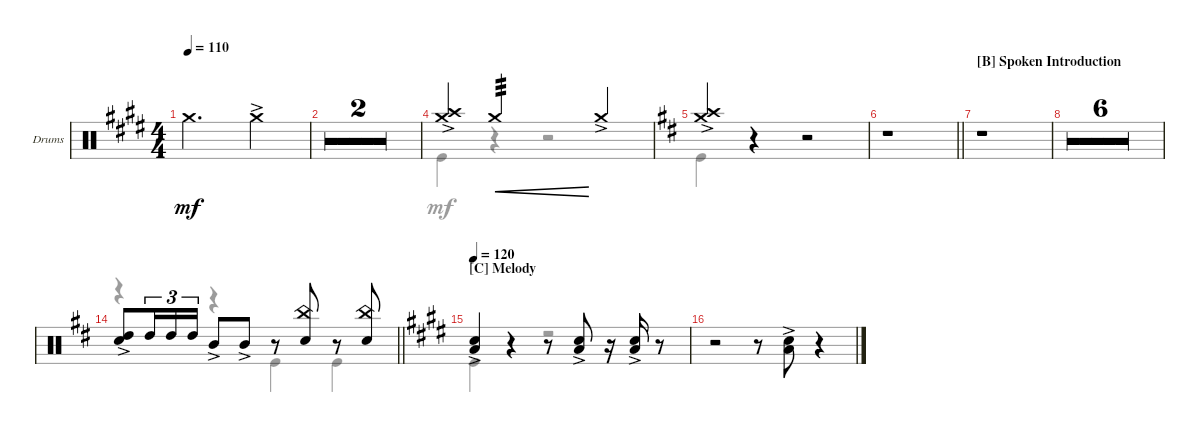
\defaultSystemsLayout 4
\bracketExtendMode groupsimilarinstruments
\firstSystemTrackNameOrientation horizontal
\otherSystemsTrackNameOrientation horizontal
\track ("Drums" "Drums") {multiBarRest instrument percussion}
\staff {score}
\articulation defaults
\voice
\ts (4 4)
\tempo 110
\clef neutral
\ks e "Crash medium (hit)"{t}.2{d dy mf} "Crash medium (hit)"{ac}.4
|
\simile firstofdouble
|
\simile secondofdouble
|
("Crash medium (hit)"{ac} "Crash high (hit)"{ac}).4 "Crash medium (hit)".2{tp 3 cre} "Crash medium (hit)"{ac}.4 |
\ks bminor
("Crash medium (hit)"{ac} "Crash high (hit)"{ac}).4 r.4 r.2 |
\barLineRight lightlight
r.1 |
\section ("B" "Spoken Introduction")
r.1 |
r.1 |
r.1 |
r.1 |
r.1 |
r.1 |
r.1 |
\barLineRight lightlight
("Snare (hit) 2"{ac} "High Tom (hit)"{ac}).8{beam merge} "High Tom (hit)".16{tu (3 2) beam merge} "High Tom (hit)".16{tu (3 2) beam merge} "High Tom (hit)".16{tu (3 2)} "Mid Tom (hit)"{ac}.8 "Mid Tom (hit)"{ac}.8 r.8 ("Snare (hit) 2" "China (hit)").8 r.8 ("Snare (hit) 2" "China (hit)").8 |
\section ("C" "Melody")
\tempo 120
\ks e
("Snare (hit) 2"{ac} "Low Tom (hit)"{ac}).4 r.4 r.8 ("Snare (hit) 2"{ac} "Low Tom (hit)"{ac}).8 r.16 ("Snare (hit) 2"{ac} "Low Tom (hit)"{ac}).16 r.8 |
r.2 r.8 ("Low Tom (hit)"{ac} "Snare (hit) 2"{ac}).8 r.4
\voice
\clef neutral
\ottava regular
\simile none
\ks e
|
\simile firstofdouble
|
\simile secondofdouble
|
\simile none "Kick (hit)".4
r.4 r.2 |
\ks bminor "Kick (hit)".4
r.4 r.2 |
\barLineRight lightlight
|
|
|
|
|
|
|
|
\barLineRight lightlight
r.4 r.4 "Kick (hit)".4 "Kick (hit)".4 |
\ks e "Kick (hit)".4
r.4 r.2 |
